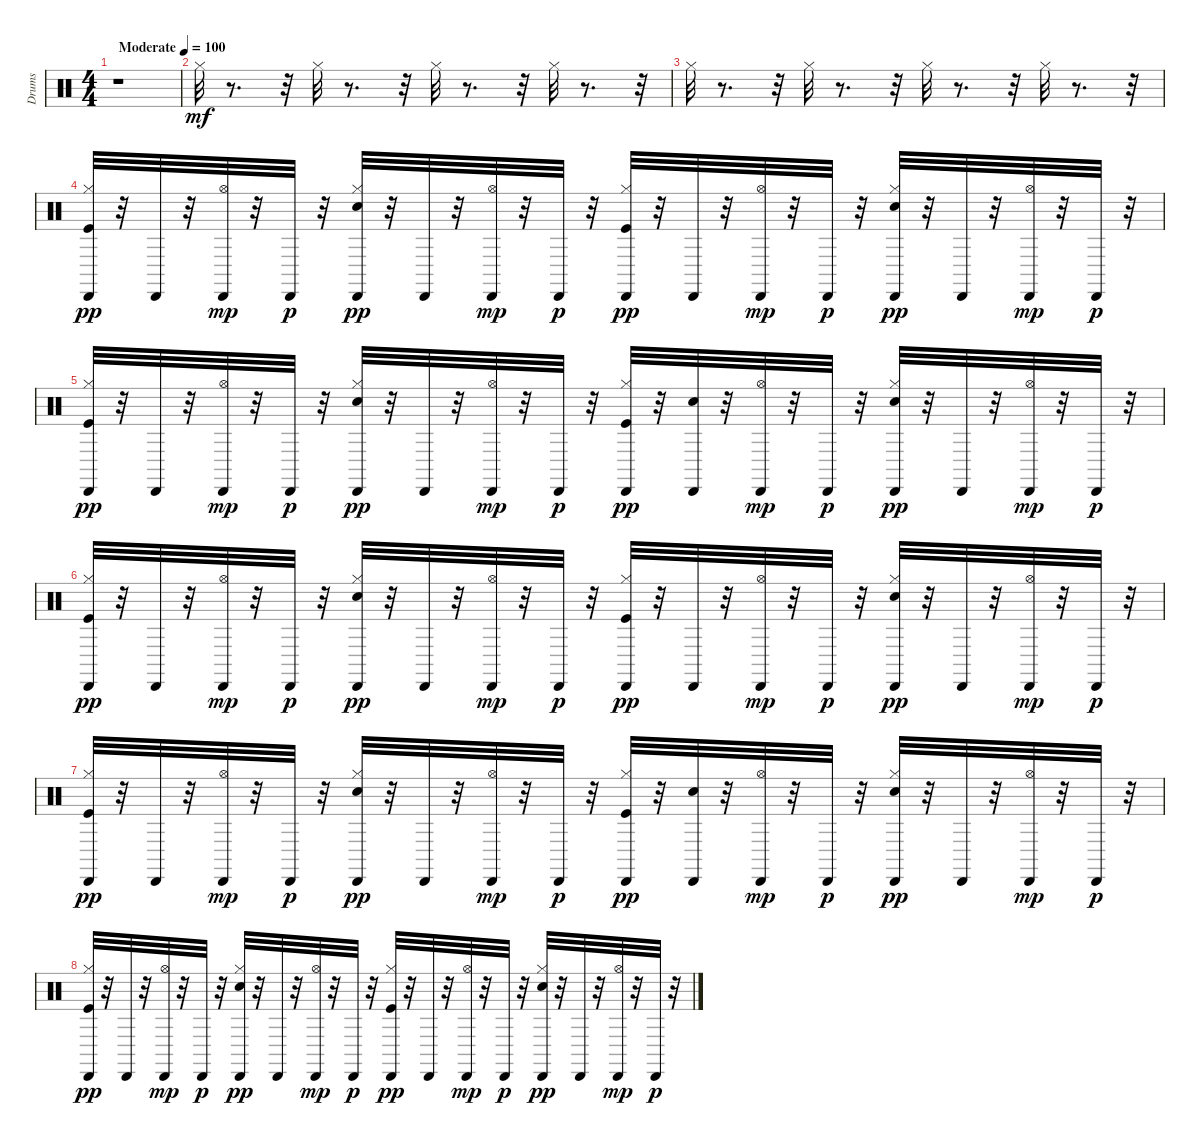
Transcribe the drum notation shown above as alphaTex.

\track ("Drums" "Drums") {instrument percussion}
\staff {score}
\articulation defaults
\ts (4 4)
\tempo (100 "Moderate")
\clef neutral
\ks c
r.1{dy mf} |
"Hi-Hat (closed)".32 r.8{d} r.32 "Hi-Hat (closed)".32 r.8{d} r.32 "Hi-Hat (closed)".32 r.8{d} r.32 "Hi-Hat (closed)".32 r.8{d} r.32 |
"Hi-Hat (closed)".32 r.8{d} r.32 "Hi-Hat (closed)".32 r.8{d} r.32 "Hi-Hat (closed)".32 r.8{d} r.32 "Hi-Hat (closed)".32 r.8{d} r.32 |
("Kick (hit)" "Hi-Hat (closed)" "Cabasa (hit)").32{dy pp} r.32 "Cabasa (hit)".32 r.32 ("Hi-Hat (open)" "Cabasa (hit)").32{dy mp} r.32 "Cabasa (hit)".32{dy p} r.32 ("Electric Snare (hit)" "Hi-Hat (closed)" "Cabasa (hit)").32{dy pp} r.32 "Cabasa (hit)".32 r.32 ("Hi-Hat (open)" "Cabasa (hit)").32{dy mp} r.32 "Cabasa (hit)".32{dy p} r.32 ("Kick (hit)" "Hi-Hat (closed)" "Cabasa (hit)").32{dy pp} r.32 "Cabasa (hit)".32 r.32 ("Hi-Hat (open)" "Cabasa (hit)").32{dy mp} r.32 "Cabasa (hit)".32{dy p} r.32 ("Electric Snare (hit)" "Hi-Hat (closed)" "Cabasa (hit)").32{dy pp} r.32 "Cabasa (hit)".32 r.32 ("Hi-Hat (open)" "Cabasa (hit)").32{dy mp} r.32 "Cabasa (hit)".32{dy p} r.32 |
("Kick (hit)" "Hi-Hat (closed)" "Cabasa (hit)").32{dy pp} r.32 "Cabasa (hit)".32 r.32 ("Hi-Hat (open)" "Cabasa (hit)").32{dy mp} r.32 "Cabasa (hit)".32{dy p} r.32 ("Electric Snare (hit)" "Hi-Hat (closed)" "Cabasa (hit)").32{dy pp} r.32 "Cabasa (hit)".32 r.32 ("Hi-Hat (open)" "Cabasa (hit)").32{dy mp} r.32 "Cabasa (hit)".32{dy p} r.32 ("Kick (hit)" "Hi-Hat (closed)" "Cabasa (hit)").32{dy pp} r.32 ("Electric Snare (hit)" "Cabasa (hit)").32 r.32 ("Hi-Hat (open)" "Cabasa (hit)").32{dy mp} r.32 "Cabasa (hit)".32{dy p} r.32 ("Electric Snare (hit)" "Hi-Hat (closed)" "Cabasa (hit)").32{dy pp} r.32 "Cabasa (hit)".32 r.32 ("Hi-Hat (open)" "Cabasa (hit)").32{dy mp} r.32 "Cabasa (hit)".32{dy p} r.32 |
("Kick (hit)" "Hi-Hat (closed)" "Cabasa (hit)").32{dy pp} r.32 "Cabasa (hit)".32 r.32 ("Hi-Hat (open)" "Cabasa (hit)").32{dy mp} r.32 "Cabasa (hit)".32{dy p} r.32 ("Electric Snare (hit)" "Hi-Hat (closed)" "Cabasa (hit)").32{dy pp} r.32 "Cabasa (hit)".32 r.32 ("Hi-Hat (open)" "Cabasa (hit)").32{dy mp} r.32 "Cabasa (hit)".32{dy p} r.32 ("Kick (hit)" "Hi-Hat (closed)" "Cabasa (hit)").32{dy pp} r.32 "Cabasa (hit)".32 r.32 ("Hi-Hat (open)" "Cabasa (hit)").32{dy mp} r.32 "Cabasa (hit)".32{dy p} r.32 ("Electric Snare (hit)" "Hi-Hat (closed)" "Cabasa (hit)").32{dy pp} r.32 "Cabasa (hit)".32 r.32 ("Hi-Hat (open)" "Cabasa (hit)").32{dy mp} r.32 "Cabasa (hit)".32{dy p} r.32 |
("Kick (hit)" "Hi-Hat (closed)" "Cabasa (hit)").32{dy pp} r.32 "Cabasa (hit)".32 r.32 ("Hi-Hat (open)" "Cabasa (hit)").32{dy mp} r.32 "Cabasa (hit)".32{dy p} r.32 ("Electric Snare (hit)" "Hi-Hat (closed)" "Cabasa (hit)").32{dy pp} r.32 "Cabasa (hit)".32 r.32 ("Hi-Hat (open)" "Cabasa (hit)").32{dy mp} r.32 "Cabasa (hit)".32{dy p} r.32 ("Kick (hit)" "Hi-Hat (closed)" "Cabasa (hit)").32{dy pp} r.32 ("Electric Snare (hit)" "Cabasa (hit)").32 r.32 ("Hi-Hat (open)" "Cabasa (hit)").32{dy mp} r.32 "Cabasa (hit)".32{dy p} r.32 ("Electric Snare (hit)" "Hi-Hat (closed)" "Cabasa (hit)").32{dy pp} r.32 "Cabasa (hit)".32 r.32 ("Hi-Hat (open)" "Cabasa (hit)").32{dy mp} r.32 "Cabasa (hit)".32{dy p} r.32 |
("Kick (hit)" "Hi-Hat (closed)" "Cabasa (hit)").32{dy pp} r.32 "Cabasa (hit)".32 r.32 ("Hi-Hat (open)" "Cabasa (hit)").32{dy mp} r.32 "Cabasa (hit)".32{dy p} r.32 ("Electric Snare (hit)" "Hi-Hat (closed)" "Cabasa (hit)").32{dy pp} r.32 "Cabasa (hit)".32 r.32 ("Hi-Hat (open)" "Cabasa (hit)").32{dy mp} r.32 "Cabasa (hit)".32{dy p} r.32 ("Kick (hit)" "Hi-Hat (closed)" "Cabasa (hit)").32{dy pp} r.32 "Cabasa (hit)".32 r.32 ("Hi-Hat (open)" "Cabasa (hit)").32{dy mp} r.32 "Cabasa (hit)".32{dy p} r.32 ("Electric Snare (hit)" "Hi-Hat (closed)" "Cabasa (hit)").32{dy pp} r.32 "Cabasa (hit)".32 r.32 ("Hi-Hat (open)" "Cabasa (hit)").32{dy mp} r.32 "Cabasa (hit)".32{dy p} r.32
